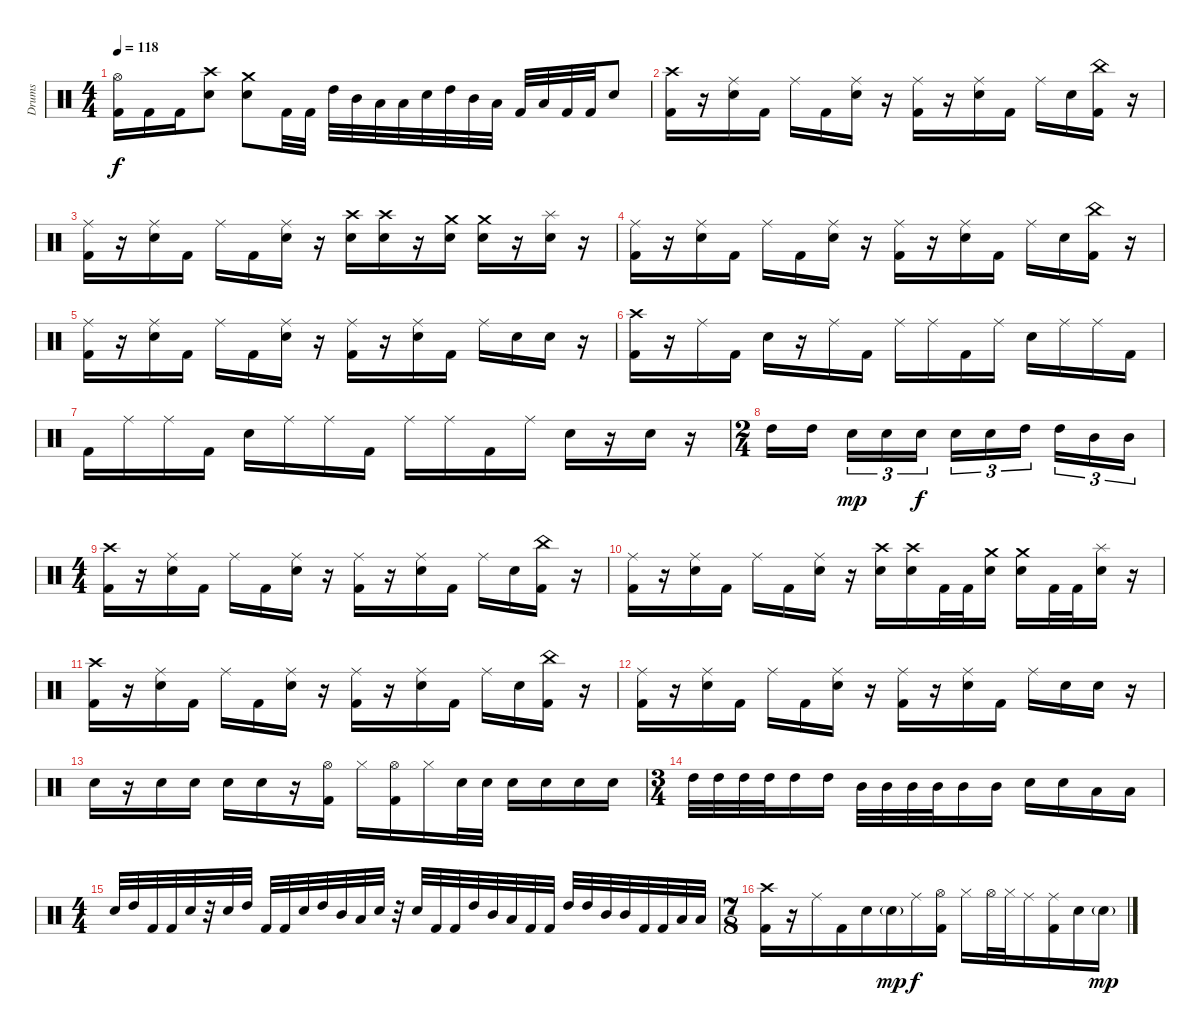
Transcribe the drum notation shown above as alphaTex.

\track ("Drums" "Drums") {instrument percussion}
\staff {score}
\articulation defaults
\ts (4 4)
\tempo 118
\clef neutral
\ks c
("Kick (hit) 2" "Hi-Hat (open)").16{dy f} "Kick (hit) 2".16 "Kick (hit) 2".16 ("Snare (hit) 2" "Crash high (hit)").8 ("Snare (hit) 2" "Crash medium (hit)").8 "Kick (hit) 2".32 "Kick (hit) 2".32 "High Tom (hit)".32 "Mid Tom (hit)".32 "Low Tom (hit)".32 "Low Tom (hit)".32 "Snare (hit) 2".32 "High Tom (hit)".32 "Mid Tom (hit)".32 "Low Tom (hit)".32 "Kick (hit) 2".32 "Low Tom (hit)".32 "Kick (hit) 2".32 "Kick (hit) 2".32 "Snare (hit) 2".8 |
("Kick (hit) 2" "Crash high (hit)").16 r.16 ("Snare (hit) 2" "Ride (middle)").16 "Kick (hit) 2".16 "Ride (middle)".16 "Kick (hit) 2".16 ("Snare (hit) 2" "Ride (middle)").16 r.16 ("Ride (middle)" "Kick (hit) 2").16 r.16 ("Snare (hit) 2" "Ride (middle)").16 "Kick (hit) 2".16 "Ride (middle)".16 "Snare (hit) 2".16 ("Kick (hit) 2" "China (hit)").16 r.16 |
("Kick (hit) 2" "Ride (middle)").16 r.16 ("Snare (hit) 2" "Ride (middle)").16 "Kick (hit) 2".16 "Ride (middle)".16 "Kick (hit) 2".16 ("Snare (hit) 2" "Ride (middle)").16 r.16 ("Snare (hit) 2" "Crash high (hit)").16 ("Snare (hit) 2" "Crash high (hit)").16 r.16 ("Snare (hit) 2" "Crash medium (hit)").16 ("Snare (hit) 2" "Crash medium (hit)").16 r.16 ("Snare (hit) 2" "Splash (hit)").16 r.16 |
("Kick (hit) 2" "Ride (middle)").16 r.16 ("Snare (hit) 2" "Ride (middle)").16 "Kick (hit) 2".16 "Ride (middle)".16 "Kick (hit) 2".16 ("Snare (hit) 2" "Ride (middle)").16 r.16 ("Ride (middle)" "Kick (hit) 2").16 r.16 ("Snare (hit) 2" "Ride (middle)").16 "Kick (hit) 2".16 "Ride (middle)".16 "Snare (hit) 2".16 ("Kick (hit) 2" "China (hit)").16 r.16 |
("Kick (hit) 2" "Ride (middle)").16 r.16 ("Snare (hit) 2" "Ride (middle)").16 "Kick (hit) 2".16 "Ride (middle)".16 "Kick (hit) 2".16 ("Snare (hit) 2" "Ride (middle)").16 r.16 ("Kick (hit) 2" "Ride (middle)").16 r.16 ("Snare (hit) 2" "Ride (middle)").16 "Kick (hit) 2".16 "Ride (middle)".16 "Snare (hit) 2".16 "Snare (hit) 2".16 r.16 |
("Kick (hit) 2" "Crash high (hit)").16 r.16 "Ride (middle)".16 "Kick (hit) 2".16 "Snare (hit) 2".16 r.16 "Ride (middle)".16 "Kick (hit) 2".16 "Ride (middle)".16 "Ride (middle)".16 "Kick (hit) 2".16 "Ride (middle)".16 "Snare (hit) 2".16 "Ride (middle)".16 "Ride (middle)".16 "Kick (hit) 2".16 |
"Kick (hit) 2".16 "Ride (middle)".16 "Ride (middle)".16 "Kick (hit) 2".16 "Snare (hit) 2".16 "Ride (middle)".16 "Ride (middle)".16 "Kick (hit) 2".16 "Ride (middle)".16 "Ride (middle)".16 "Kick (hit) 2".16 "Ride (middle)".16 "Snare (hit) 2".16 r.16 "Snare (hit) 2".16 r.16 |
\ts (2 4)
"High Tom (hit)".16 "High Tom (hit)".16{beam splitsecondary} "Snare (hit) 2".16{tu (3 2) dy mp} "Snare (hit) 2".16{tu (3 2)} "Snare (hit) 2".16{tu (3 2) dy f} "Snare (hit) 2".16{tu (3 2)} "Snare (hit) 2".16{tu (3 2)} "High Tom (hit)".16{tu (3 2) beam splitsecondary} "High Tom (hit)".16{tu (3 2)} "Mid Tom (hit)".16{tu (3 2)} "Mid Tom (hit)".16{tu (3 2)} |
\ts (4 4)
("Kick (hit) 2" "Crash high (hit)").16 r.16 ("Snare (hit) 2" "Ride (middle)").16 "Kick (hit) 2".16 "Ride (middle)".16 "Kick (hit) 2".16 ("Snare (hit) 2" "Ride (middle)").16 r.16 ("Ride (middle)" "Kick (hit) 2").16 r.16 ("Snare (hit) 2" "Ride (middle)").16 "Kick (hit) 2".16 "Ride (middle)".16 "Snare (hit) 2".16 ("Kick (hit) 2" "China (hit)").16 r.16 |
("Kick (hit) 2" "Ride (middle)").16 r.16 ("Snare (hit) 2" "Ride (middle)").16 "Kick (hit) 2".16 "Ride (middle)".16 "Kick (hit) 2".16 ("Snare (hit) 2" "Ride (middle)").16 r.16 ("Snare (hit) 2" "Crash high (hit)").16 ("Snare (hit) 2" "Crash high (hit)").16 "Kick (hit) 2".32 "Kick (hit) 2".32 ("Snare (hit) 2" "Crash medium (hit)").16 ("Snare (hit) 2" "Crash medium (hit)").16 "Kick (hit) 2".32 "Kick (hit) 2".32 ("Snare (hit) 2" "Splash (hit)").16 r.16 |
("Kick (hit) 2" "Crash high (hit)").16 r.16 ("Snare (hit) 2" "Ride (middle)").16 "Kick (hit) 2".16 "Ride (middle)".16 "Kick (hit) 2".16 ("Snare (hit) 2" "Ride (middle)").16 r.16 ("Ride (middle)" "Kick (hit) 2").16 r.16 ("Snare (hit) 2" "Ride (middle)").16 "Kick (hit) 2".16 "Ride (middle)".16 "Snare (hit) 2".16 ("Kick (hit) 2" "China (hit)").16 r.16 |
("Kick (hit) 2" "Ride (middle)").16 r.16 ("Snare (hit) 2" "Ride (middle)").16 "Kick (hit) 2".16 "Ride (middle)".16 "Kick (hit) 2".16 ("Snare (hit) 2" "Ride (middle)").16 r.16 ("Ride (middle)" "Kick (hit) 2").16 r.16 ("Snare (hit) 2" "Ride (middle)").16 "Kick (hit) 2".16 "Ride (middle)".16 "Snare (hit) 2".16 "Snare (hit) 2".16 r.16 |
"Snare (hit) 2".16 r.16 "Snare (hit) 2".16 "Snare (hit) 2".16 "Snare (hit) 2".16 "Snare (hit) 2".16 r.16 ("Hi-Hat (open)" "Kick (hit) 2").16 "Hi-Hat (closed)".16 ("Hi-Hat (open)" "Kick (hit) 2").16 "Hi-Hat (closed)".16 "Snare (hit) 2".32 "Snare (hit) 2".32 "Snare (hit) 2".16 "Snare (hit) 2".16 "Snare (hit) 2".16 "Snare (hit) 2".16 |
\ts (3 4)
"High Tom (hit)".32 "High Tom (hit)".32 "High Tom (hit)".32 "High Tom (hit)".32 "High Tom (hit)".16 "High Tom (hit)".16 "Mid Tom (hit)".32 "Mid Tom (hit)".32 "Mid Tom (hit)".32 "Mid Tom (hit)".32 "Mid Tom (hit)".16 "Mid Tom (hit)".16 "Snare (hit) 2".16 "Snare (hit) 2".16 "Low Tom (hit)".16 "Low Tom (hit)".16 |
\ts (4 4)
"Snare (hit) 2".32 "High Tom (hit)".32 "Kick (hit) 2".32 "Kick (hit) 2".32 "Snare (hit) 2".32 r.32 "Snare (hit) 2".32 "High Tom (hit)".32 "Kick (hit) 2".32 "Kick (hit) 2".32 "Snare (hit) 2".32 "High Tom (hit)".32 "Mid Tom (hit)".32 "Low Tom (hit)".32 "Snare (hit) 2".32 r.32 "Snare (hit) 2".32 "Kick (hit) 2".32 "Kick (hit) 2".32 "High Tom (hit)".32 "Mid Tom (hit)".32 "Low Tom (hit)".32 "Kick (hit) 2".32 "Kick (hit) 2".32 "High Tom (hit)".32 "High Tom (hit)".32 "Mid Tom (hit)".32 "Mid Tom (hit)".32 "Kick (hit) 2".32 "Kick (hit) 2".32 "Low Tom (hit)".32 "Low Tom (hit)".32 |
\ts (7 8)
("Crash high (hit)" "Kick (hit) 2").16 r.16 "Ride (middle)".16 "Kick (hit) 2".16 "Snare (hit) 2".16 "Snare (hit) 2"{g}.16{dy mp} "Ride (middle)".16{dy f} ("Hi-Hat (open)" "Kick (hit) 2").16 "Hi-Hat (closed)".16 "Hi-Hat (open)".32 "Hi-Hat (closed)".32 "Ride (middle)".16 ("Kick (hit) 2" "Ride (middle)").16 "Snare (hit) 2".16 "Snare (hit) 2"{g}.16{dy mp}
